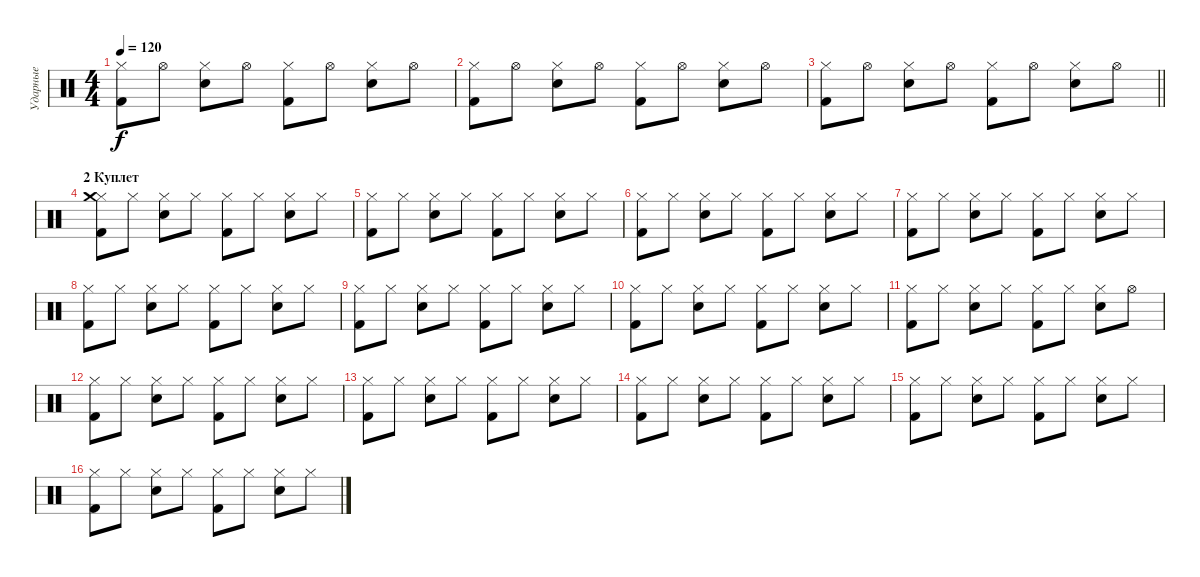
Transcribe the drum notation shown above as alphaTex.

\track ("Ударные" "Ударные") {instrument percussion}
\staff {score}
\articulation defaults
\ts (4 4)
\tempo 120
\clef neutral
\ks c
("Hi-Hat (closed)" "Kick (hit) 2").8{dy f} "Hi-Hat (open)".8 ("Hi-Hat (closed)" "Snare (hit) 2").8 "Hi-Hat (open)".8 ("Hi-Hat (closed)" "Kick (hit) 2").8 "Hi-Hat (open)".8 ("Hi-Hat (closed)" "Snare (hit) 2").8 "Hi-Hat (open)".8 |
("Hi-Hat (closed)" "Kick (hit) 2").8 "Hi-Hat (open)".8 ("Hi-Hat (closed)" "Snare (hit) 2").8 "Hi-Hat (open)".8 ("Hi-Hat (closed)" "Kick (hit) 2").8 "Hi-Hat (open)".8 ("Hi-Hat (closed)" "Snare (hit) 2").8 "Hi-Hat (open)".8 |
\barLineRight lightlight
("Hi-Hat (closed)" "Kick (hit) 2").8 "Hi-Hat (open)".8 ("Hi-Hat (closed)" "Snare (hit) 2").8 "Hi-Hat (open)".8 ("Hi-Hat (closed)" "Kick (hit) 2").8 "Hi-Hat (open)".8 ("Hi-Hat (closed)" "Snare (hit) 2").8 "Hi-Hat (open)".8 |
\section ("" "2 Куплет")
("Hi-Hat (closed)" "Kick (hit) 2" "Crash medium (hit)").8 "Hi-Hat (closed)".8 ("Hi-Hat (closed)" "Snare (hit) 2").8 "Hi-Hat (closed)".8 ("Hi-Hat (closed)" "Kick (hit) 2").8 "Hi-Hat (closed)".8 ("Hi-Hat (closed)" "Snare (hit) 2").8 "Hi-Hat (closed)".8 |
("Hi-Hat (closed)" "Kick (hit) 2").8 "Hi-Hat (closed)".8 ("Hi-Hat (closed)" "Snare (hit) 2").8 "Hi-Hat (closed)".8 ("Hi-Hat (closed)" "Kick (hit) 2").8 "Hi-Hat (closed)".8 ("Hi-Hat (closed)" "Snare (hit) 2").8 "Hi-Hat (closed)".8 |
("Hi-Hat (closed)" "Kick (hit) 2").8 "Hi-Hat (closed)".8 ("Hi-Hat (closed)" "Snare (hit) 2").8 "Hi-Hat (closed)".8 ("Hi-Hat (closed)" "Kick (hit) 2").8 "Hi-Hat (closed)".8 ("Hi-Hat (closed)" "Snare (hit) 2").8 "Hi-Hat (closed)".8 |
("Hi-Hat (closed)" "Kick (hit) 2").8 "Hi-Hat (closed)".8 ("Hi-Hat (closed)" "Snare (hit) 2").8 "Hi-Hat (closed)".8 ("Hi-Hat (closed)" "Kick (hit) 2").8 "Hi-Hat (closed)".8 ("Hi-Hat (closed)" "Snare (hit) 2").8 "Hi-Hat (closed)".8 |
("Hi-Hat (closed)" "Kick (hit) 2").8 "Hi-Hat (closed)".8 ("Hi-Hat (closed)" "Snare (hit) 2").8 "Hi-Hat (closed)".8 ("Hi-Hat (closed)" "Kick (hit) 2").8 "Hi-Hat (closed)".8 ("Hi-Hat (closed)" "Snare (hit) 2").8 "Hi-Hat (closed)".8 |
("Hi-Hat (closed)" "Kick (hit) 2").8 "Hi-Hat (closed)".8 ("Hi-Hat (closed)" "Snare (hit) 2").8 "Hi-Hat (closed)".8 ("Hi-Hat (closed)" "Kick (hit) 2").8 "Hi-Hat (closed)".8 ("Hi-Hat (closed)" "Snare (hit) 2").8 "Hi-Hat (closed)".8 |
("Hi-Hat (closed)" "Kick (hit) 2").8 "Hi-Hat (closed)".8 ("Hi-Hat (closed)" "Snare (hit) 2").8 "Hi-Hat (closed)".8 ("Hi-Hat (closed)" "Kick (hit) 2").8 "Hi-Hat (closed)".8 ("Hi-Hat (closed)" "Snare (hit) 2").8 "Hi-Hat (closed)".8 |
("Hi-Hat (closed)" "Kick (hit) 2").8 "Hi-Hat (closed)".8 ("Hi-Hat (closed)" "Snare (hit) 2").8 "Hi-Hat (closed)".8 ("Hi-Hat (closed)" "Kick (hit) 2").8 "Hi-Hat (closed)".8 ("Hi-Hat (closed)" "Snare (hit) 2").8 "Hi-Hat (open)".8 |
("Hi-Hat (closed)" "Kick (hit) 2").8 "Hi-Hat (closed)".8 ("Hi-Hat (closed)" "Snare (hit) 2").8 "Hi-Hat (closed)".8 ("Hi-Hat (closed)" "Kick (hit) 2").8 "Hi-Hat (closed)".8 ("Hi-Hat (closed)" "Snare (hit) 2").8 "Hi-Hat (closed)".8 |
("Hi-Hat (closed)" "Kick (hit) 2").8 "Hi-Hat (closed)".8 ("Hi-Hat (closed)" "Snare (hit) 2").8 "Hi-Hat (closed)".8 ("Hi-Hat (closed)" "Kick (hit) 2").8 "Hi-Hat (closed)".8 ("Hi-Hat (closed)" "Snare (hit) 2").8 "Hi-Hat (closed)".8 |
("Hi-Hat (closed)" "Kick (hit) 2").8 "Hi-Hat (closed)".8 ("Hi-Hat (closed)" "Snare (hit) 2").8 "Hi-Hat (closed)".8 ("Hi-Hat (closed)" "Kick (hit) 2").8 "Hi-Hat (closed)".8 ("Hi-Hat (closed)" "Snare (hit) 2").8 "Hi-Hat (closed)".8 |
("Hi-Hat (closed)" "Kick (hit) 2").8 "Hi-Hat (closed)".8 ("Hi-Hat (closed)" "Snare (hit) 2").8 "Hi-Hat (closed)".8 ("Hi-Hat (closed)" "Kick (hit) 2").8 "Hi-Hat (closed)".8 ("Hi-Hat (closed)" "Snare (hit) 2").8 "Hi-Hat (closed)".8 |
("Hi-Hat (closed)" "Kick (hit) 2").8 "Hi-Hat (closed)".8 ("Hi-Hat (closed)" "Snare (hit) 2").8 "Hi-Hat (closed)".8 ("Hi-Hat (closed)" "Kick (hit) 2").8 "Hi-Hat (closed)".8 ("Hi-Hat (closed)" "Snare (hit) 2").8 "Hi-Hat (closed)".8
